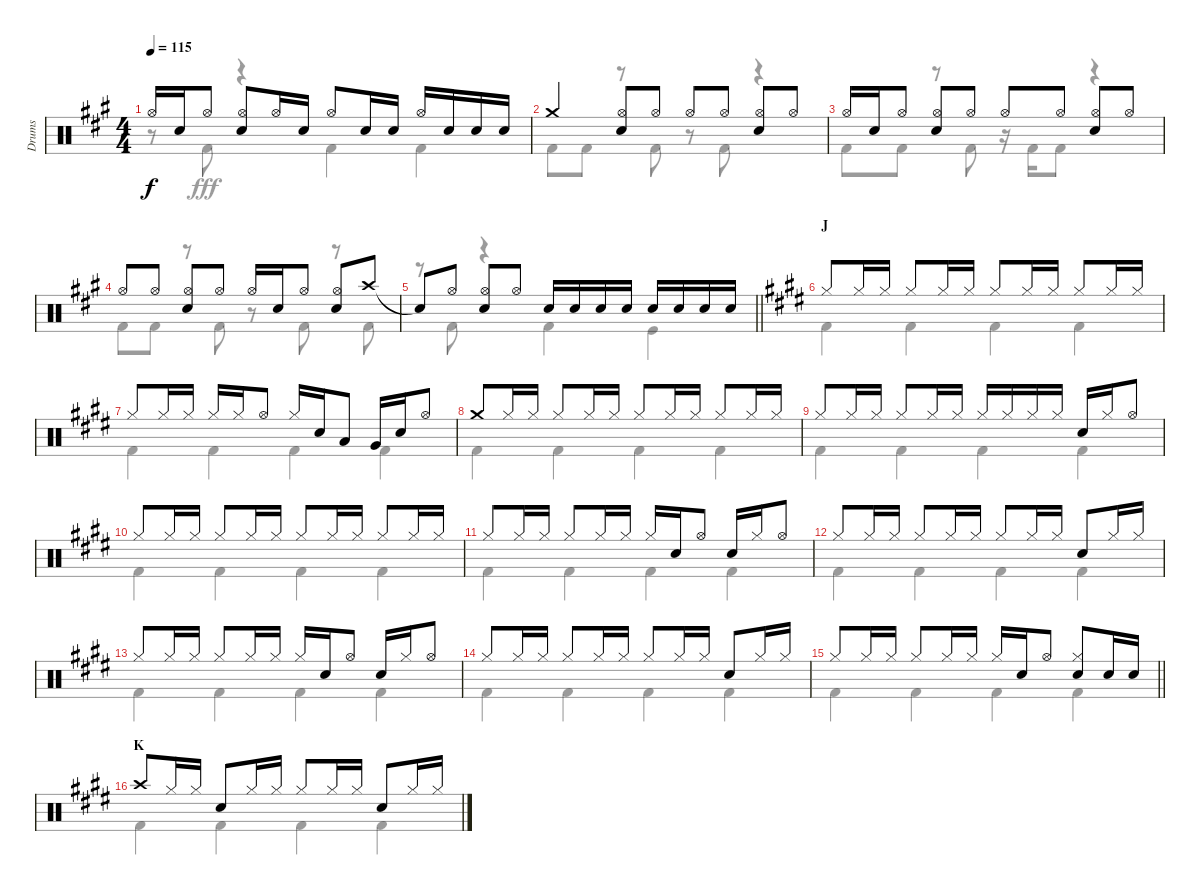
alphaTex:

\track ("Drums" "Drums") {instrument percussion}
\staff {score}
\articulation defaults
\voice
\ts (4 4)
\tempo 115
\clef neutral
\ks a "Hi-Hat (open)".16{dy f} "Snare (hit) 2".16 "Hi-Hat (open)".8
("Hi-Hat (open)" "Snare (hit) 2").8 "Hi-Hat (open)".16 "Snare (hit) 2".16 "Hi-Hat (open)".8 "Snare (hit) 2".16 "Snare (hit) 2".16 "Hi-Hat (open)".16 "Snare (hit) 2".16 "Snare (hit) 2".16 "Snare (hit) 2".16 |
"Crash medium (hit)".4 ("Hi-Hat (open)" "Snare (hit) 2").8 "Hi-Hat (open)".8 "Hi-Hat (open)".8 "Hi-Hat (open)".8 ("Hi-Hat (open)" "Snare (hit) 2").8 "Hi-Hat (open)".8 |
"Hi-Hat (open)".16 "Snare (hit) 2".16 "Hi-Hat (open)".8 ("Hi-Hat (open)" "Snare (hit) 2").8 "Hi-Hat (open)".8 "Hi-Hat (open)".8 "Hi-Hat (open)".8 ("Hi-Hat (open)" "Snare (hit) 2").8 "Hi-Hat (open)".8 |
"Hi-Hat (open)".8 "Hi-Hat (open)".8 ("Hi-Hat (open)" "Snare (hit) 2").8 "Hi-Hat (open)".8 "Hi-Hat (open)".16 "Snare (hit) 2".16 "Hi-Hat (open)".8 ("Hi-Hat (open)" "Snare (hit) 2").8 "Crash high (hit)".8 |
\barLineRight lightlight "Snare (hit)"{t}.8 "Hi-Hat (open)".8
("Hi-Hat (open)" "Snare (hit) 2").8 "Hi-Hat (open)".8 "Snare (hit) 2".16 "Snare (hit) 2".16 "Snare (hit) 2".16 "Snare (hit) 2".16 "Snare (hit) 2".16 "Snare (hit) 2".16 "Snare (hit) 2".16 "Snare (hit) 2".16 |
\section ("" "J")
\ks e "Hi-Hat (closed)".8 "Hi-Hat (closed)".16 "Hi-Hat (closed)".16 "Hi-Hat (closed)".8 "Hi-Hat (closed)".16 "Hi-Hat (closed)".16 "Hi-Hat (closed)".8 "Hi-Hat (closed)".16 "Hi-Hat (closed)".16 "Hi-Hat (closed)".8 "Hi-Hat (closed)".16 "Hi-Hat (closed)".16
|
"Hi-Hat (closed)".8 "Hi-Hat (closed)".16 "Hi-Hat (closed)".16 "Hi-Hat (closed)".16 "Hi-Hat (closed)".16 "Hi-Hat (open)".8 "Hi-Hat (closed)".16 "Snare (hit) 2".16 "Low Tom (hit)".8 "Very Low Tom (hit)".16 "Snare (hit) 2".16 "Hi-Hat (open)".8 |
"Crash medium (hit)".8 "Hi-Hat (closed)".16 "Hi-Hat (closed)".16 "Hi-Hat (closed)".8 "Hi-Hat (closed)".16 "Hi-Hat (closed)".16 "Hi-Hat (closed)".8 "Hi-Hat (closed)".16 "Hi-Hat (closed)".16 "Hi-Hat (closed)".8 "Hi-Hat (closed)".16 "Hi-Hat (closed)".16 |
"Hi-Hat (closed)".8 "Hi-Hat (closed)".16 "Hi-Hat (closed)".16 "Hi-Hat (closed)".8 "Hi-Hat (closed)".16 "Hi-Hat (closed)".16 "Hi-Hat (closed)".16 "Hi-Hat (closed)".16 "Hi-Hat (closed)".16 "Hi-Hat (closed)".16 "Snare (hit) 2".16 "Hi-Hat (closed)".16 "Hi-Hat (open)".8 |
"Hi-Hat (closed)".8 "Hi-Hat (closed)".16 "Hi-Hat (closed)".16 "Hi-Hat (closed)".8 "Hi-Hat (closed)".16 "Hi-Hat (closed)".16 "Hi-Hat (closed)".8 "Hi-Hat (closed)".16 "Hi-Hat (closed)".16 "Hi-Hat (closed)".8 "Hi-Hat (closed)".16 "Hi-Hat (closed)".16 |
"Hi-Hat (closed)".8 "Hi-Hat (closed)".16 "Hi-Hat (closed)".16 "Hi-Hat (closed)".8 "Hi-Hat (closed)".16 "Hi-Hat (closed)".16 "Hi-Hat (closed)".16 "Snare (hit) 2".16 "Hi-Hat (open)".8 "Snare (hit) 2".16 "Hi-Hat (closed)".16 "Hi-Hat (open)".8 |
"Hi-Hat (closed)".8 "Hi-Hat (closed)".16 "Hi-Hat (closed)".16 "Hi-Hat (closed)".8 "Hi-Hat (closed)".16 "Hi-Hat (closed)".16 "Hi-Hat (closed)".8 "Hi-Hat (closed)".16 "Hi-Hat (closed)".16 "Snare (hit) 2".8 "Hi-Hat (closed)".16 "Hi-Hat (closed)".16 |
"Hi-Hat (closed)".8 "Hi-Hat (closed)".16 "Hi-Hat (closed)".16 "Hi-Hat (closed)".8 "Hi-Hat (closed)".16 "Hi-Hat (closed)".16 "Hi-Hat (closed)".16 "Snare (hit) 2".16 "Hi-Hat (open)".8 "Snare (hit) 2".16 "Hi-Hat (closed)".16 "Hi-Hat (open)".8 |
"Hi-Hat (closed)".8 "Hi-Hat (closed)".16 "Hi-Hat (closed)".16 "Hi-Hat (closed)".8 "Hi-Hat (closed)".16 "Hi-Hat (closed)".16 "Hi-Hat (closed)".8 "Hi-Hat (closed)".16 "Hi-Hat (closed)".16 "Snare (hit) 2".8 "Hi-Hat (closed)".16 "Hi-Hat (closed)".16 |
\barLineRight lightlight "Hi-Hat (closed)".8 "Hi-Hat (closed)".16 "Hi-Hat (closed)".16 "Hi-Hat (closed)".8 "Hi-Hat (closed)".16 "Hi-Hat (closed)".16 "Hi-Hat (closed)".16 "Snare (hit) 2".16 "Hi-Hat (open)".8
("Hi-Hat (closed)" "Snare (hit) 2").8 "Snare (hit) 2".16 "Snare (hit) 2".16 |
\section ("" "K")
"Crash high (hit)".8 "Hi-Hat (closed)".16 "Hi-Hat (closed)".16 "Snare (hit) 2".8 "Hi-Hat (closed)".16 "Hi-Hat (closed)".16 "Hi-Hat (closed)".8 "Hi-Hat (closed)".16 "Hi-Hat (closed)".16 "Snare (hit) 2".8 "Hi-Hat (closed)".16 "Hi-Hat (closed)".16
\voice
\clef neutral
\ottava regular
\simile none
\ks a
r.8{dy fff} "Kick (hit) 2".8 r.4 "Kick (hit) 2".4 "Kick (hit) 2".4 |
"Kick (hit) 2".8 "Kick (hit) 2".8 r.8 "Kick (hit) 2".8 r.8 "Kick (hit) 2".8 r.4 |
"Kick (hit) 2".8 "Kick (hit) 2".8 r.8 "Kick (hit) 2".8 r.16 "Kick (hit) 2".16 "Kick (hit) 2".8 r.4 |
"Kick (hit) 2".8 "Kick (hit) 2".8 r.8 "Kick (hit) 2".8 r.8 "Kick (hit) 2".8 r.8 "Kick (hit) 2".8 |
\barLineRight lightlight
r.8 "Kick (hit) 2".8 r.4 "Kick (hit) 2".4 "Kick (hit)".4 |
\ks e "Kick (hit) 2".4 "Kick (hit) 2".4 "Kick (hit) 2".4 "Kick (hit) 2".4
|
"Kick (hit) 2".4 "Kick (hit) 2".4 "Kick (hit) 2".4 "Kick (hit) 2".4 |
"Kick (hit) 2".4 "Kick (hit) 2".4 "Kick (hit) 2".4 "Kick (hit) 2".4 |
"Kick (hit) 2".4 "Kick (hit) 2".4 "Kick (hit) 2".4 "Kick (hit) 2".4 |
"Kick (hit) 2".4 "Kick (hit) 2".4 "Kick (hit) 2".4 "Kick (hit) 2".4 |
"Kick (hit) 2".4 "Kick (hit) 2".4 "Kick (hit) 2".4 "Kick (hit) 2".4 |
"Kick (hit) 2".4 "Kick (hit) 2".4 "Kick (hit) 2".4 "Kick (hit) 2".4 |
"Kick (hit) 2".4 "Kick (hit) 2".4 "Kick (hit) 2".4 "Kick (hit) 2".4 |
"Kick (hit) 2".4 "Kick (hit) 2".4 "Kick (hit) 2".4 "Kick (hit) 2".4 |
\barLineRight lightlight "Kick (hit) 2".4 "Kick (hit) 2".4 "Kick (hit) 2".4 "Kick (hit) 2".4
|
"Kick (hit) 2".4 "Kick (hit) 2".4 "Kick (hit) 2".4 "Kick (hit) 2".4
